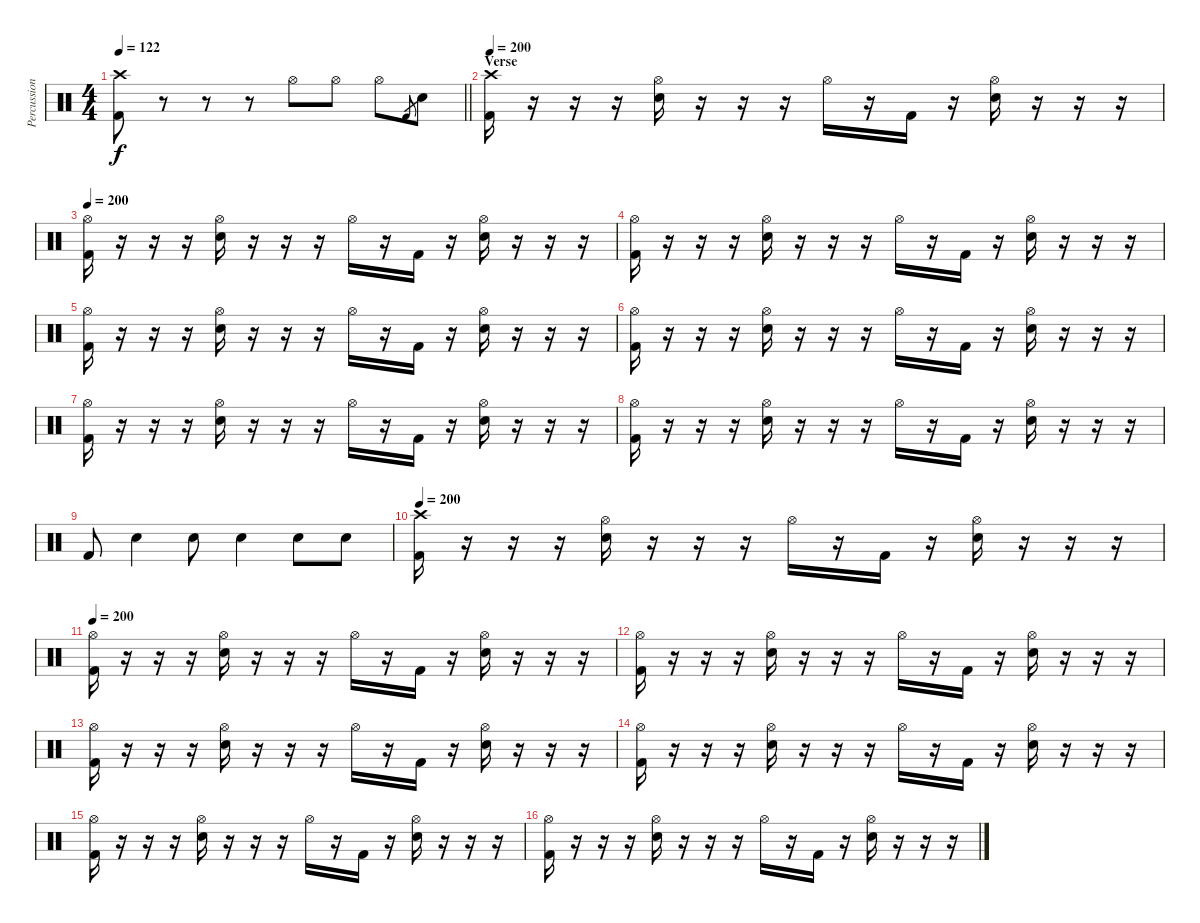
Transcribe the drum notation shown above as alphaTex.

\track ("Percussion" "Percussion") {instrument percussion}
\staff {score}
\articulation defaults
\ts (4 4)
\tempo 122
\clef neutral
\barLineRight lightlight
\ks c
("Crash high (hit)" "Kick (hit) 2").8{dy f} r.8 r.8 r.8 "Hi-Hat (open)".8 "Hi-Hat (open)".8 "Hi-Hat (open)".8 "Kick (hit) 2".8{gr} "Electric Snare (hit)".8 |
\section ("" "Verse")
\tempo 200
("Crash high (hit)" "Kick (hit) 2").16 r.16 r.16 r.16 ("Hi-Hat (open)" "Electric Snare (hit)").16 r.16 r.16 r.16 "Hi-Hat (open)".16 r.16 "Kick (hit) 2".16 r.16 ("Hi-Hat (open)" "Electric Snare (hit)").16 r.16 r.16 r.16 |
\tempo 200
("Hi-Hat (open)" "Kick (hit) 2").16 r.16 r.16 r.16 ("Hi-Hat (open)" "Electric Snare (hit)").16 r.16 r.16 r.16 "Hi-Hat (open)".16 r.16 "Kick (hit) 2".16 r.16 ("Hi-Hat (open)" "Electric Snare (hit)").16 r.16 r.16 r.16 |
("Hi-Hat (open)" "Kick (hit) 2").16 r.16 r.16 r.16 ("Hi-Hat (open)" "Electric Snare (hit)").16 r.16 r.16 r.16 "Hi-Hat (open)".16 r.16 "Kick (hit) 2".16 r.16 ("Hi-Hat (open)" "Electric Snare (hit)").16 r.16 r.16 r.16 |
("Hi-Hat (open)" "Kick (hit) 2").16 r.16 r.16 r.16 ("Hi-Hat (open)" "Electric Snare (hit)").16 r.16 r.16 r.16 "Hi-Hat (open)".16 r.16 "Kick (hit) 2".16 r.16 ("Hi-Hat (open)" "Electric Snare (hit)").16 r.16 r.16 r.16 |
("Hi-Hat (open)" "Kick (hit) 2").16 r.16 r.16 r.16 ("Hi-Hat (open)" "Electric Snare (hit)").16 r.16 r.16 r.16 "Hi-Hat (open)".16 r.16 "Kick (hit) 2".16 r.16 ("Hi-Hat (open)" "Electric Snare (hit)").16 r.16 r.16 r.16 |
("Hi-Hat (open)" "Kick (hit) 2").16 r.16 r.16 r.16 ("Hi-Hat (open)" "Electric Snare (hit)").16 r.16 r.16 r.16 "Hi-Hat (open)".16 r.16 "Kick (hit) 2".16 r.16 ("Hi-Hat (open)" "Electric Snare (hit)").16 r.16 r.16 r.16 |
("Hi-Hat (open)" "Kick (hit) 2").16 r.16 r.16 r.16 ("Hi-Hat (open)" "Electric Snare (hit)").16 r.16 r.16 r.16 "Hi-Hat (open)".16 r.16 "Kick (hit) 2".16 r.16 ("Hi-Hat (open)" "Electric Snare (hit)").16 r.16 r.16 r.16 |
"Kick (hit) 2".8 "Electric Snare (hit)".4 "Electric Snare (hit)".8 "Electric Snare (hit)".4 "Electric Snare (hit)".8 "Electric Snare (hit)".8 |
\tempo 200
("Crash high (hit)" "Kick (hit) 2").16 r.16 r.16 r.16 ("Hi-Hat (open)" "Electric Snare (hit)").16 r.16 r.16 r.16 "Hi-Hat (open)".16 r.16 "Kick (hit) 2".16 r.16 ("Hi-Hat (open)" "Electric Snare (hit)").16 r.16 r.16 r.16 |
\tempo 200
("Hi-Hat (open)" "Kick (hit) 2").16 r.16 r.16 r.16 ("Hi-Hat (open)" "Electric Snare (hit)").16 r.16 r.16 r.16 "Hi-Hat (open)".16 r.16 "Kick (hit) 2".16 r.16 ("Hi-Hat (open)" "Electric Snare (hit)").16 r.16 r.16 r.16 |
("Hi-Hat (open)" "Kick (hit) 2").16 r.16 r.16 r.16 ("Hi-Hat (open)" "Electric Snare (hit)").16 r.16 r.16 r.16 "Hi-Hat (open)".16 r.16 "Kick (hit) 2".16 r.16 ("Hi-Hat (open)" "Electric Snare (hit)").16 r.16 r.16 r.16 |
("Hi-Hat (open)" "Kick (hit) 2").16 r.16 r.16 r.16 ("Hi-Hat (open)" "Electric Snare (hit)").16 r.16 r.16 r.16 "Hi-Hat (open)".16 r.16 "Kick (hit) 2".16 r.16 ("Hi-Hat (open)" "Electric Snare (hit)").16 r.16 r.16 r.16 |
("Hi-Hat (open)" "Kick (hit) 2").16 r.16 r.16 r.16 ("Hi-Hat (open)" "Electric Snare (hit)").16 r.16 r.16 r.16 "Hi-Hat (open)".16 r.16 "Kick (hit) 2".16 r.16 ("Hi-Hat (open)" "Electric Snare (hit)").16 r.16 r.16 r.16 |
("Hi-Hat (open)" "Kick (hit) 2").16 r.16 r.16 r.16 ("Hi-Hat (open)" "Electric Snare (hit)").16 r.16 r.16 r.16 "Hi-Hat (open)".16 r.16 "Kick (hit) 2".16 r.16 ("Hi-Hat (open)" "Electric Snare (hit)").16 r.16 r.16 r.16 |
("Hi-Hat (open)" "Kick (hit) 2").16 r.16 r.16 r.16 ("Hi-Hat (open)" "Electric Snare (hit)").16 r.16 r.16 r.16 "Hi-Hat (open)".16 r.16 "Kick (hit) 2".16 r.16 ("Hi-Hat (open)" "Electric Snare (hit)").16 r.16 r.16 r.16
